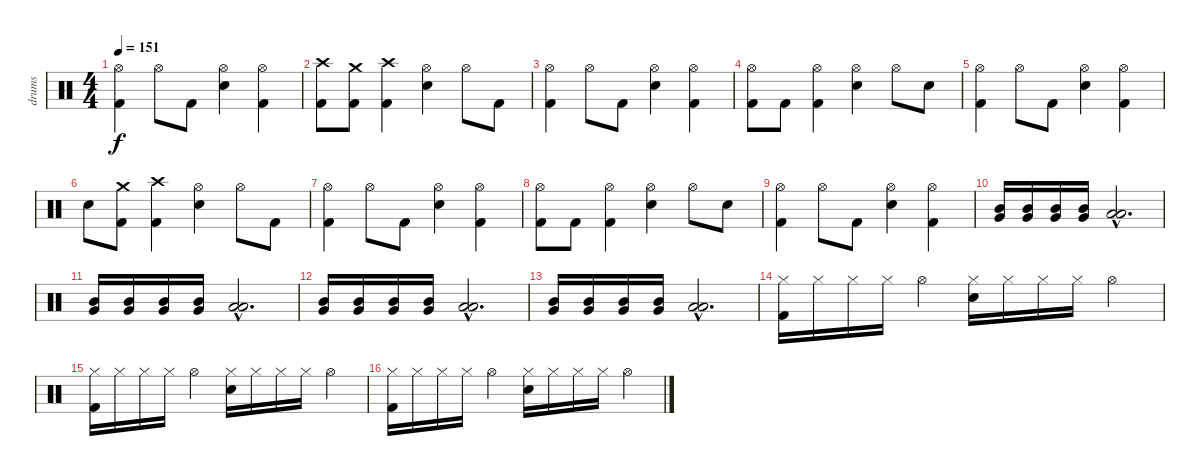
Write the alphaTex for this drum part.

\track ("drums" "drums") {instrument percussion}
\staff {score}
\articulation defaults
\ts (4 4)
\tempo 151
\clef neutral
\ks c
("Hi-Hat (open)" "Kick (hit) 2").4{dy f} "Hi-Hat (open)".8 "Kick (hit) 2".8 ("Hi-Hat (open)" "Electric Snare (hit)").4 ("Hi-Hat (open)" "Kick (hit) 2").4 |
("Crash high (hit)" "Kick (hit) 2").8 ("Crash medium (hit)" "Kick (hit) 2").8 ("Crash high (hit)" "Kick (hit) 2").4 ("Hi-Hat (open)" "Electric Snare (hit)").4 "Hi-Hat (open)".8 "Kick (hit) 2".8 |
("Hi-Hat (open)" "Kick (hit) 2").4 "Hi-Hat (open)".8 "Kick (hit) 2".8 ("Hi-Hat (open)" "Electric Snare (hit)").4 ("Hi-Hat (open)" "Kick (hit) 2").4 |
("Hi-Hat (open)" "Kick (hit) 2").8 "Kick (hit) 2".8 ("Hi-Hat (open)" "Kick (hit) 2").4 ("Hi-Hat (open)" "Electric Snare (hit)").4 "Hi-Hat (open)".8 "Electric Snare (hit)".8 |
("Hi-Hat (open)" "Kick (hit) 2").4 "Hi-Hat (open)".8 "Kick (hit) 2".8 ("Hi-Hat (open)" "Electric Snare (hit)").4 ("Hi-Hat (open)" "Kick (hit) 2").4 |
"Electric Snare (hit)".8 ("Crash medium (hit)" "Kick (hit) 2").8 ("Crash high (hit)" "Kick (hit) 2").4 ("Hi-Hat (open)" "Electric Snare (hit)").4 "Hi-Hat (open)".8 "Kick (hit) 2".8 |
("Hi-Hat (open)" "Kick (hit) 2").4 "Hi-Hat (open)".8 "Kick (hit) 2".8 ("Hi-Hat (open)" "Electric Snare (hit)").4 ("Hi-Hat (open)" "Kick (hit) 2").4 |
("Hi-Hat (open)" "Kick (hit) 2").8 "Kick (hit) 2".8 ("Hi-Hat (open)" "Kick (hit) 2").4 ("Hi-Hat (open)" "Electric Snare (hit)").4 "Hi-Hat (open)".8 "Electric Snare (hit)".8 |
("Hi-Hat (open)" "Kick (hit) 2").4 "Hi-Hat (open)".8 "Kick (hit) 2".8 ("Hi-Hat (open)" "Electric Snare (hit)").4 ("Hi-Hat (open)" "Kick (hit) 2").4 |
("Mid Tom (hit)" "Very Low Tom (hit)").16 ("Mid Tom (hit)" "Very Low Tom (hit)").16 ("Mid Tom (hit)" "Very Low Tom (hit)").16 ("Mid Tom (hit)" "Very Low Tom (hit)").16 ("Low Tom (hit)"{hac} "Low Floor Tom (hit)"{hac}).2{d} |
("Mid Tom (hit)" "Very Low Tom (hit)").16 ("Mid Tom (hit)" "Very Low Tom (hit)").16 ("Mid Tom (hit)" "Very Low Tom (hit)").16 ("Mid Tom (hit)" "Very Low Tom (hit)").16 ("Low Tom (hit)"{hac} "Low Floor Tom (hit)"{hac}).2{d} |
("Mid Tom (hit)" "Very Low Tom (hit)").16 ("Mid Tom (hit)" "Very Low Tom (hit)").16 ("Mid Tom (hit)" "Very Low Tom (hit)").16 ("Mid Tom (hit)" "Very Low Tom (hit)").16 ("Low Tom (hit)"{hac} "Low Floor Tom (hit)"{hac}).2{d} |
("Mid Tom (hit)" "Very Low Tom (hit)").16 ("Mid Tom (hit)" "Very Low Tom (hit)").16 ("Mid Tom (hit)" "Very Low Tom (hit)").16 ("Mid Tom (hit)" "Very Low Tom (hit)").16 ("Low Tom (hit)"{hac} "Low Floor Tom (hit)"{hac}).2{d} |
("Hi-Hat (closed)" "Kick (hit) 2").16 "Hi-Hat (closed)".16 "Hi-Hat (closed)".16 "Hi-Hat (closed)".16 "Hi-Hat (open)".4 ("Hi-Hat (closed)" "Electric Snare (hit)").16 "Hi-Hat (closed)".16 "Hi-Hat (closed)".16 "Hi-Hat (closed)".16 "Hi-Hat (open)".4 |
("Hi-Hat (closed)" "Kick (hit) 2").16 "Hi-Hat (closed)".16 "Hi-Hat (closed)".16 "Hi-Hat (closed)".16 "Hi-Hat (open)".4 ("Hi-Hat (closed)" "Electric Snare (hit)").16 "Hi-Hat (closed)".16 "Hi-Hat (closed)".16 "Hi-Hat (closed)".16 "Hi-Hat (open)".4 |
("Hi-Hat (closed)" "Kick (hit) 2").16 "Hi-Hat (closed)".16 "Hi-Hat (closed)".16 "Hi-Hat (closed)".16 "Hi-Hat (open)".4 ("Hi-Hat (closed)" "Electric Snare (hit)").16 "Hi-Hat (closed)".16 "Hi-Hat (closed)".16 "Hi-Hat (closed)".16 "Hi-Hat (open)".4
